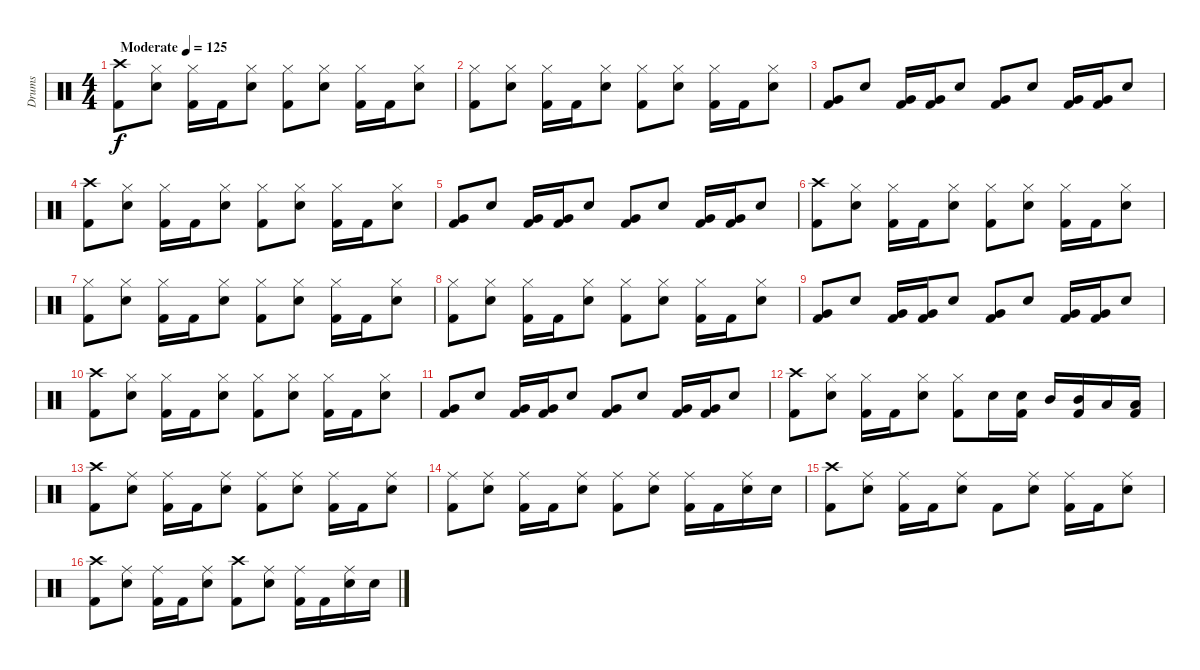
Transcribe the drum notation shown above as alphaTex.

\track ("Drums" "Drums") {instrument percussion}
\staff {score}
\articulation defaults
\ts (4 4)
\tempo (125 "Moderate")
\clef neutral
\ks c
("Crash high (hit)" "Kick (hit) 2").8{dy f} ("Hi-Hat (closed)" "Electric Snare (hit)").8 ("Hi-Hat (closed)" "Kick (hit) 2").16 "Kick (hit) 2".16 ("Hi-Hat (closed)" "Electric Snare (hit)").8 ("Hi-Hat (closed)" "Kick (hit) 2").8 ("Hi-Hat (closed)" "Electric Snare (hit)").8 ("Hi-Hat (closed)" "Kick (hit) 2").16 "Kick (hit) 2".16 ("Hi-Hat (closed)" "Electric Snare (hit)").8 |
("Hi-Hat (closed)" "Kick (hit) 2").8 ("Hi-Hat (closed)" "Electric Snare (hit)").8 ("Hi-Hat (closed)" "Kick (hit) 2").16 "Kick (hit) 2".16 ("Hi-Hat (closed)" "Electric Snare (hit)").8 ("Hi-Hat (closed)" "Kick (hit) 2").8 ("Hi-Hat (closed)" "Electric Snare (hit)").8 ("Hi-Hat (closed)" "Kick (hit) 2").16 "Kick (hit) 2".16 ("Hi-Hat (closed)" "Electric Snare (hit)").8 |
("Very Low Tom (hit)" "Kick (hit) 2").8 "Electric Snare (hit)".8 ("Very Low Tom (hit)" "Kick (hit) 2").16 ("Very Low Tom (hit)" "Kick (hit) 2").16 "Electric Snare (hit)".8 ("Very Low Tom (hit)" "Kick (hit) 2").8 "Electric Snare (hit)".8 ("Very Low Tom (hit)" "Kick (hit) 2").16 ("Very Low Tom (hit)" "Kick (hit) 2").16 "Electric Snare (hit)".8 |
("Crash high (hit)" "Kick (hit) 2").8 ("Hi-Hat (closed)" "Electric Snare (hit)").8 ("Hi-Hat (closed)" "Kick (hit) 2").16 "Kick (hit) 2".16 ("Hi-Hat (closed)" "Electric Snare (hit)").8 ("Hi-Hat (closed)" "Kick (hit) 2").8 ("Hi-Hat (closed)" "Electric Snare (hit)").8 ("Hi-Hat (closed)" "Kick (hit) 2").16 "Kick (hit) 2".16 ("Hi-Hat (closed)" "Electric Snare (hit)").8 |
("Very Low Tom (hit)" "Kick (hit) 2").8 "Electric Snare (hit)".8 ("Very Low Tom (hit)" "Kick (hit) 2").16 ("Very Low Tom (hit)" "Kick (hit) 2").16 "Electric Snare (hit)".8 ("Very Low Tom (hit)" "Kick (hit) 2").8 "Electric Snare (hit)".8 ("Very Low Tom (hit)" "Kick (hit) 2").16 ("Very Low Tom (hit)" "Kick (hit) 2").16 "Electric Snare (hit)".8 |
("Crash high (hit)" "Kick (hit) 2").8 ("Hi-Hat (closed)" "Electric Snare (hit)").8 ("Hi-Hat (closed)" "Kick (hit) 2").16 "Kick (hit) 2".16 ("Hi-Hat (closed)" "Electric Snare (hit)").8 ("Hi-Hat (closed)" "Kick (hit) 2").8 ("Hi-Hat (closed)" "Electric Snare (hit)").8 ("Hi-Hat (closed)" "Kick (hit) 2").16 "Kick (hit) 2".16 ("Hi-Hat (closed)" "Electric Snare (hit)").8 |
("Hi-Hat (closed)" "Kick (hit) 2").8 ("Hi-Hat (closed)" "Electric Snare (hit)").8 ("Hi-Hat (closed)" "Kick (hit) 2").16 "Kick (hit) 2".16 ("Hi-Hat (closed)" "Electric Snare (hit)").8 ("Hi-Hat (closed)" "Kick (hit) 2").8 ("Hi-Hat (closed)" "Electric Snare (hit)").8 ("Hi-Hat (closed)" "Kick (hit) 2").16 "Kick (hit) 2".16 ("Hi-Hat (closed)" "Electric Snare (hit)").8 |
("Hi-Hat (closed)" "Kick (hit) 2").8 ("Hi-Hat (closed)" "Electric Snare (hit)").8 ("Hi-Hat (closed)" "Kick (hit) 2").16 "Kick (hit) 2".16 ("Hi-Hat (closed)" "Electric Snare (hit)").8 ("Hi-Hat (closed)" "Kick (hit) 2").8 ("Hi-Hat (closed)" "Electric Snare (hit)").8 ("Hi-Hat (closed)" "Kick (hit) 2").16 "Kick (hit) 2".16 ("Hi-Hat (closed)" "Electric Snare (hit)").8 |
("Very Low Tom (hit)" "Kick (hit) 2").8 "Electric Snare (hit)".8 ("Very Low Tom (hit)" "Kick (hit) 2").16 ("Very Low Tom (hit)" "Kick (hit) 2").16 "Electric Snare (hit)".8 ("Very Low Tom (hit)" "Kick (hit) 2").8 "Electric Snare (hit)".8 ("Very Low Tom (hit)" "Kick (hit) 2").16 ("Very Low Tom (hit)" "Kick (hit) 2").16 "Electric Snare (hit)".8 |
("Crash high (hit)" "Kick (hit) 2").8 ("Hi-Hat (closed)" "Electric Snare (hit)").8 ("Hi-Hat (closed)" "Kick (hit) 2").16 "Kick (hit) 2".16 ("Hi-Hat (closed)" "Electric Snare (hit)").8 ("Hi-Hat (closed)" "Kick (hit) 2").8 ("Hi-Hat (closed)" "Electric Snare (hit)").8 ("Hi-Hat (closed)" "Kick (hit) 2").16 "Kick (hit) 2".16 ("Hi-Hat (closed)" "Electric Snare (hit)").8 |
("Very Low Tom (hit)" "Kick (hit) 2").8 "Electric Snare (hit)".8 ("Very Low Tom (hit)" "Kick (hit) 2").16 ("Very Low Tom (hit)" "Kick (hit) 2").16 "Electric Snare (hit)".8 ("Very Low Tom (hit)" "Kick (hit) 2").8 "Electric Snare (hit)".8 ("Very Low Tom (hit)" "Kick (hit) 2").16 ("Very Low Tom (hit)" "Kick (hit) 2").16 "Electric Snare (hit)".8 |
("Crash high (hit)" "Kick (hit) 2").8 ("Hi-Hat (closed)" "Electric Snare (hit)").8 ("Hi-Hat (closed)" "Kick (hit) 2").16 "Kick (hit) 2".16 ("Hi-Hat (closed)" "Electric Snare (hit)").8 ("Hi-Hat (closed)" "Kick (hit) 2").8 "Electric Snare (hit)".16 ("Electric Snare (hit)" "Kick (hit) 2").16 "Mid Tom (hit)".16 ("Mid Tom (hit)" "Kick (hit) 2").16 "Low Tom (hit)".16 ("Low Tom (hit)" "Kick (hit) 2").16 |
("Crash high (hit)" "Kick (hit) 2").8 ("Ride (middle)" "Electric Snare (hit)").8 ("Ride (middle)" "Kick (hit) 2").16 "Kick (hit) 2".16 ("Ride (middle)" "Electric Snare (hit)").8 ("Ride (middle)" "Kick (hit) 2").8 ("Ride (middle)" "Electric Snare (hit)").8 ("Ride (middle)" "Kick (hit) 2").16 "Kick (hit) 2".16 ("Ride (middle)" "Electric Snare (hit)").8 |
("Ride (middle)" "Kick (hit) 2").8 ("Ride (middle)" "Electric Snare (hit)").8 ("Ride (middle)" "Kick (hit) 2").16 "Kick (hit) 2".16 ("Ride (middle)" "Electric Snare (hit)").8 ("Ride (middle)" "Kick (hit) 2").8 ("Ride (middle)" "Electric Snare (hit)").8 ("Ride (middle)" "Kick (hit) 2").16 "Kick (hit) 2".16 ("Ride (middle)" "Electric Snare (hit)").16 "Electric Snare (hit)".16 |
("Crash high (hit)" "Kick (hit) 2").8 ("Ride (middle)" "Electric Snare (hit)").8 ("Ride (middle)" "Kick (hit) 2").16 "Kick (hit) 2".16 ("Ride (middle)" "Electric Snare (hit)").8 "Kick (hit) 2".8 ("Ride (middle)" "Electric Snare (hit)").8 ("Ride (middle)" "Kick (hit) 2").16 "Kick (hit) 2".16 ("Ride (middle)" "Electric Snare (hit)").8 |
("Crash high (hit)" "Kick (hit) 2").8 ("Ride (middle)" "Electric Snare (hit)").8 ("Ride (middle)" "Kick (hit) 2").16 "Kick (hit) 2".16 ("Ride (middle)" "Electric Snare (hit)").8 ("Crash high (hit)" "Kick (hit) 2").8 ("Ride (middle)" "Electric Snare (hit)").8 ("Ride (middle)" "Kick (hit) 2").16 "Kick (hit) 2".16 ("Ride (middle)" "Electric Snare (hit)").16 "Electric Snare (hit)".16
